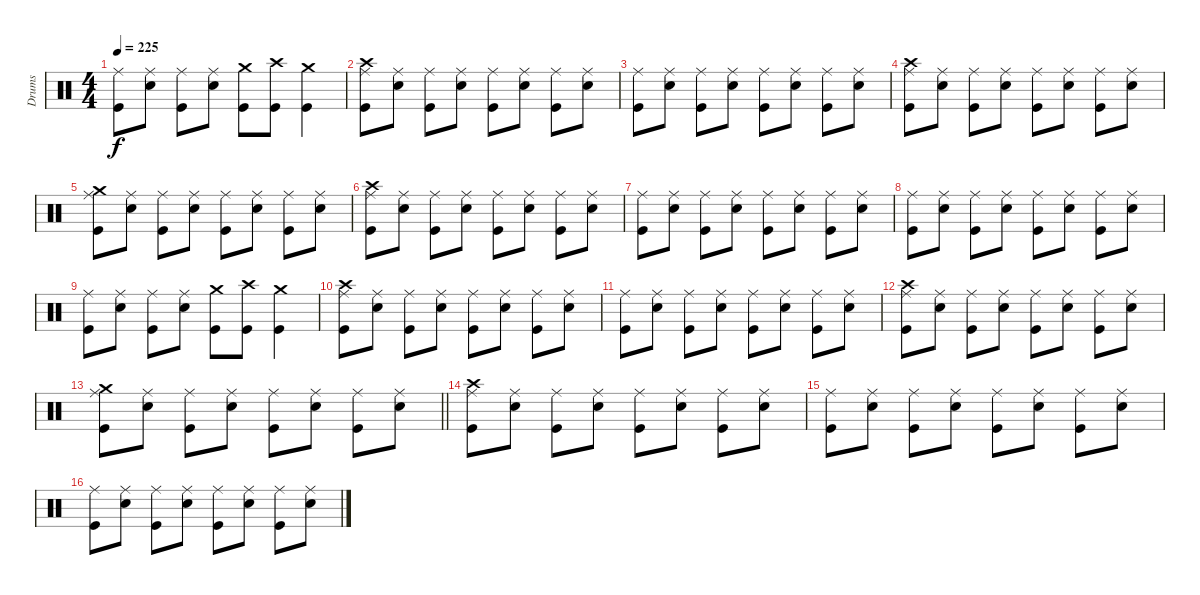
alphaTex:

\track ("Drums" "Drums") {instrument percussion}
\staff {score}
\articulation defaults
\ts (4 4)
\tempo 225
\clef neutral
\ks c
("Ride (middle)" "Kick (hit)").8{dy f} ("Ride (middle)" "Electric Snare (hit)").8 ("Ride (middle)" "Kick (hit)").8 ("Ride (middle)" "Electric Snare (hit)").8 ("Crash medium (hit)" "Kick (hit)").8 ("Crash high (hit)" "Kick (hit)").8 ("Crash medium (hit)" "Kick (hit)").4 |
("Crash high (hit)" "Ride (middle)" "Kick (hit)").8 ("Ride (middle)" "Electric Snare (hit)").8 ("Ride (middle)" "Kick (hit)").8 ("Ride (middle)" "Electric Snare (hit)").8 ("Ride (middle)" "Kick (hit)").8 ("Ride (middle)" "Electric Snare (hit)").8 ("Ride (middle)" "Kick (hit)").8 ("Ride (middle)" "Electric Snare (hit)").8 |
("Ride (middle)" "Kick (hit)").8 ("Ride (middle)" "Electric Snare (hit)").8 ("Ride (middle)" "Kick (hit)").8 ("Ride (middle)" "Electric Snare (hit)").8 ("Ride (middle)" "Kick (hit)").8 ("Ride (middle)" "Electric Snare (hit)").8 ("Ride (middle)" "Kick (hit)").8 ("Ride (middle)" "Electric Snare (hit)").8 |
("Crash high (hit)" "Ride (middle)" "Kick (hit)").8 ("Ride (middle)" "Electric Snare (hit)").8 ("Ride (middle)" "Kick (hit)").8 ("Ride (middle)" "Electric Snare (hit)").8 ("Ride (middle)" "Kick (hit)").8 ("Ride (middle)" "Electric Snare (hit)").8 ("Ride (middle)" "Kick (hit)").8 ("Ride (middle)" "Electric Snare (hit)").8 |
("Crash medium (hit)" "Ride (middle)" "Kick (hit)").8 ("Ride (middle)" "Electric Snare (hit)").8 ("Ride (middle)" "Kick (hit)").8 ("Ride (middle)" "Electric Snare (hit)").8 ("Ride (middle)" "Kick (hit)").8 ("Ride (middle)" "Electric Snare (hit)").8 ("Ride (middle)" "Kick (hit)").8 ("Ride (middle)" "Electric Snare (hit)").8 |
("Crash high (hit)" "Ride (middle)" "Kick (hit)").8 ("Ride (middle)" "Electric Snare (hit)").8 ("Ride (middle)" "Kick (hit)").8 ("Ride (middle)" "Electric Snare (hit)").8 ("Ride (middle)" "Kick (hit)").8 ("Ride (middle)" "Electric Snare (hit)").8 ("Ride (middle)" "Kick (hit)").8 ("Ride (middle)" "Electric Snare (hit)").8 |
("Ride (middle)" "Kick (hit)").8 ("Ride (middle)" "Electric Snare (hit)").8 ("Ride (middle)" "Kick (hit)").8 ("Ride (middle)" "Electric Snare (hit)").8 ("Ride (middle)" "Kick (hit)").8 ("Ride (middle)" "Electric Snare (hit)").8 ("Ride (middle)" "Kick (hit)").8 ("Ride (middle)" "Electric Snare (hit)").8 |
("Ride (middle)" "Kick (hit)").8 ("Ride (middle)" "Electric Snare (hit)").8 ("Ride (middle)" "Kick (hit)").8 ("Ride (middle)" "Electric Snare (hit)").8 ("Ride (middle)" "Kick (hit)").8 ("Ride (middle)" "Electric Snare (hit)").8 ("Ride (middle)" "Kick (hit)").8 ("Ride (middle)" "Electric Snare (hit)").8 |
("Ride (middle)" "Kick (hit)").8 ("Ride (middle)" "Electric Snare (hit)").8 ("Ride (middle)" "Kick (hit)").8 ("Ride (middle)" "Electric Snare (hit)").8 ("Crash medium (hit)" "Kick (hit)").8 ("Crash high (hit)" "Kick (hit)").8 ("Crash medium (hit)" "Kick (hit)").4 |
("Crash high (hit)" "Ride (middle)" "Kick (hit)").8 ("Ride (middle)" "Electric Snare (hit)").8 ("Ride (middle)" "Kick (hit)").8 ("Ride (middle)" "Electric Snare (hit)").8 ("Ride (middle)" "Kick (hit)").8 ("Ride (middle)" "Electric Snare (hit)").8 ("Ride (middle)" "Kick (hit)").8 ("Ride (middle)" "Electric Snare (hit)").8 |
("Ride (middle)" "Kick (hit)").8 ("Ride (middle)" "Electric Snare (hit)").8 ("Ride (middle)" "Kick (hit)").8 ("Ride (middle)" "Electric Snare (hit)").8 ("Ride (middle)" "Kick (hit)").8 ("Ride (middle)" "Electric Snare (hit)").8 ("Ride (middle)" "Kick (hit)").8 ("Ride (middle)" "Electric Snare (hit)").8 |
("Crash high (hit)" "Ride (middle)" "Kick (hit)").8 ("Ride (middle)" "Electric Snare (hit)").8 ("Ride (middle)" "Kick (hit)").8 ("Ride (middle)" "Electric Snare (hit)").8 ("Ride (middle)" "Kick (hit)").8 ("Ride (middle)" "Electric Snare (hit)").8 ("Ride (middle)" "Kick (hit)").8 ("Ride (middle)" "Electric Snare (hit)").8 |
\barLineRight lightlight
("Crash medium (hit)" "Ride (middle)" "Kick (hit)").8 ("Ride (middle)" "Electric Snare (hit)").8 ("Ride (middle)" "Kick (hit)").8 ("Ride (middle)" "Electric Snare (hit)").8 ("Ride (middle)" "Kick (hit)").8 ("Ride (middle)" "Electric Snare (hit)").8 ("Ride (middle)" "Kick (hit)").8 ("Ride (middle)" "Electric Snare (hit)").8 |
("Crash high (hit)" "Ride (middle)" "Kick (hit)").8 ("Ride (middle)" "Electric Snare (hit)").8 ("Ride (middle)" "Kick (hit)").8 ("Ride (middle)" "Electric Snare (hit)").8 ("Ride (middle)" "Kick (hit)").8 ("Ride (middle)" "Electric Snare (hit)").8 ("Ride (middle)" "Kick (hit)").8 ("Ride (middle)" "Electric Snare (hit)").8 |
("Ride (middle)" "Kick (hit)").8 ("Ride (middle)" "Electric Snare (hit)").8 ("Ride (middle)" "Kick (hit)").8 ("Ride (middle)" "Electric Snare (hit)").8 ("Ride (middle)" "Kick (hit)").8 ("Ride (middle)" "Electric Snare (hit)").8 ("Ride (middle)" "Kick (hit)").8 ("Ride (middle)" "Electric Snare (hit)").8 |
("Ride (middle)" "Kick (hit)").8 ("Ride (middle)" "Electric Snare (hit)").8 ("Ride (middle)" "Kick (hit)").8 ("Ride (middle)" "Electric Snare (hit)").8 ("Ride (middle)" "Kick (hit)").8 ("Ride (middle)" "Electric Snare (hit)").8 ("Ride (middle)" "Kick (hit)").8 ("Ride (middle)" "Electric Snare (hit)").8
